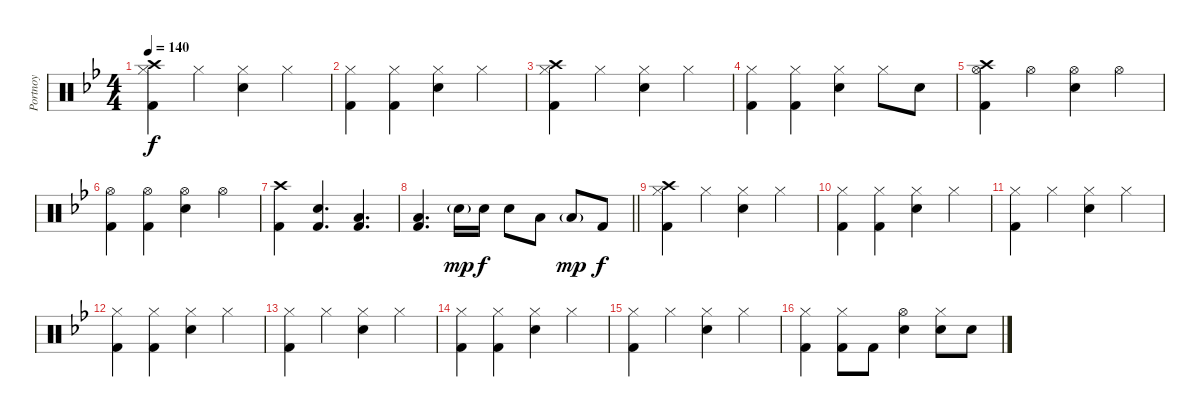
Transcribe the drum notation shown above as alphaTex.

\track ("Portnoy" "Portnoy") {instrument percussion}
\staff {score}
\articulation defaults
\ts (4 4)
\tempo 140
\clef neutral
\ks bb
("Hi-Hat (closed)" "Crash high (hit)" "Kick (hit) 2").4{dy f} "Hi-Hat (closed)".4 ("Hi-Hat (closed)" "Snare (hit) 2").4 "Hi-Hat (closed)".4 |
("Hi-Hat (closed)" "Kick (hit) 2").4 ("Hi-Hat (closed)" "Kick (hit) 2").4 ("Hi-Hat (closed)" "Snare (hit) 2").4 "Hi-Hat (closed)".4 |
("Hi-Hat (closed)" "Crash high (hit)" "Kick (hit) 2").4 "Hi-Hat (closed)".4 ("Hi-Hat (closed)" "Snare (hit) 2").4 "Hi-Hat (closed)".4 |
("Hi-Hat (closed)" "Kick (hit) 2").4 ("Hi-Hat (closed)" "Kick (hit) 2").4 ("Hi-Hat (closed)" "Snare (hit) 2").4 "Hi-Hat (closed)".8 "Snare (hit) 2".8 |
("Hi-Hat (open)" "Crash high (hit)" "Kick (hit) 2").4 "Hi-Hat (open)".4 ("Hi-Hat (open)" "Snare (hit) 2").4 "Hi-Hat (open)".4 |
("Hi-Hat (open)" "Kick (hit) 2").4 ("Hi-Hat (open)" "Kick (hit) 2").4 ("Hi-Hat (open)" "Snare (hit) 2").4 "Hi-Hat (open)".4 |
("Crash high (hit)" "Kick (hit) 2").4 ("Snare (hit) 2" "Kick (hit) 2").4{d} ("Low Tom (hit)" "Kick (hit) 2").4{d} |
\barLineRight lightlight
("Low Floor Tom (hit)" "Kick (hit) 2").4{d} "Snare (hit) 2"{g}.16{dy mp} "Snare (hit) 2".16{dy f} "Snare (hit) 2".8 "Low Floor Tom (hit)".8 "Low Floor Tom (hit)"{g}.8{dy mp} "Kick (hit) 2".8{dy f} |
("Crash high (hit)" "Hi-Hat (closed)" "Kick (hit) 2").4 "Hi-Hat (closed)".4 ("Hi-Hat (closed)" "Snare (hit) 2").4 "Hi-Hat (closed)".4 |
("Hi-Hat (closed)" "Kick (hit) 2").4 ("Hi-Hat (closed)" "Kick (hit) 2").4 ("Hi-Hat (closed)" "Snare (hit) 2").4 "Hi-Hat (closed)".4 |
("Hi-Hat (closed)" "Kick (hit) 2").4 "Hi-Hat (closed)".4 ("Hi-Hat (closed)" "Snare (hit) 2").4 "Hi-Hat (closed)".4 |
("Hi-Hat (closed)" "Kick (hit) 2").4 ("Hi-Hat (closed)" "Kick (hit) 2").4 ("Hi-Hat (closed)" "Snare (hit) 2").4 "Hi-Hat (closed)".4 |
("Hi-Hat (closed)" "Kick (hit) 2").4 "Hi-Hat (closed)".4 ("Hi-Hat (closed)" "Snare (hit) 2").4 "Hi-Hat (closed)".4 |
("Hi-Hat (closed)" "Kick (hit) 2").4 ("Hi-Hat (closed)" "Kick (hit) 2").4 ("Hi-Hat (closed)" "Snare (hit) 2").4 "Hi-Hat (closed)".4 |
("Hi-Hat (closed)" "Kick (hit) 2").4 "Hi-Hat (closed)".4 ("Hi-Hat (closed)" "Snare (hit) 2").4 "Hi-Hat (closed)".4 |
("Hi-Hat (closed)" "Kick (hit) 2").4 ("Hi-Hat (closed)" "Kick (hit) 2").8 "Kick (hit) 2".8 ("Hi-Hat (open)" "Snare (hit) 2").4 ("Hi-Hat (closed)" "Snare (hit) 2").8 "Snare (hit) 2".8
